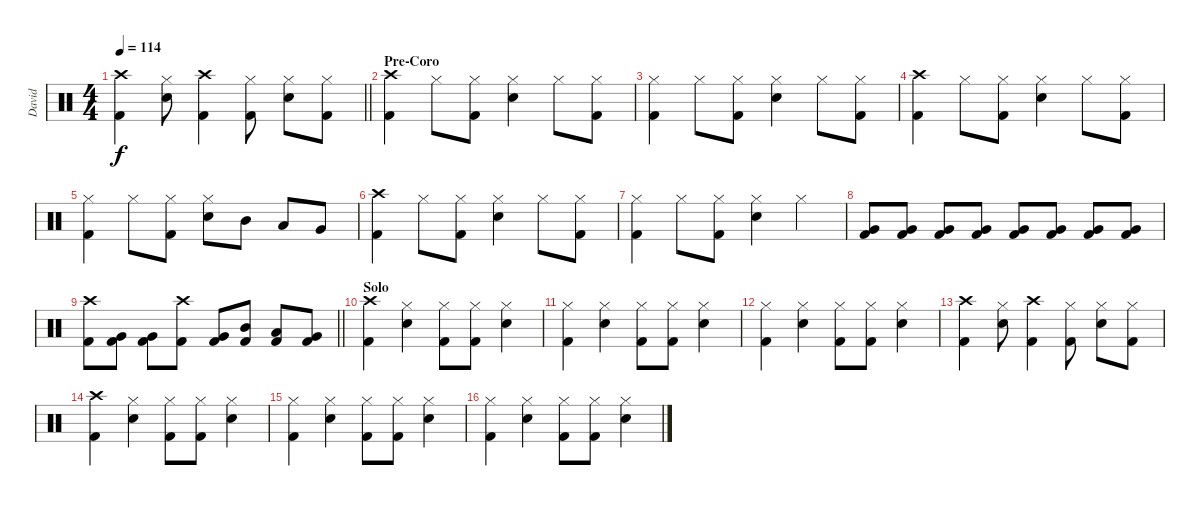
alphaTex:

\track ("David" "David") {instrument percussion}
\staff {score}
\articulation defaults
\ts (4 4)
\tempo 114
\clef neutral
\barLineRight lightlight
\ks c
("Crash high (hit)" "Kick (hit) 2").4{dy f} ("Hi-Hat (closed)" "Snare (hit) 2").8 ("Crash high (hit)" "Kick (hit) 2").4 ("Hi-Hat (closed)" "Kick (hit) 2").8 ("Hi-Hat (closed)" "Snare (hit) 2").8 ("Hi-Hat (closed)" "Kick (hit) 2").8 |
\section ("" "Pre-Coro")
("Crash high (hit)" "Kick (hit) 2").4 "Hi-Hat (closed)".8 ("Hi-Hat (closed)" "Kick (hit) 2").8 ("Hi-Hat (closed)" "Snare (hit) 2").4 "Hi-Hat (closed)".8 ("Hi-Hat (closed)" "Kick (hit) 2").8 |
("Hi-Hat (closed)" "Kick (hit) 2").4 "Hi-Hat (closed)".8 ("Hi-Hat (closed)" "Kick (hit) 2").8 ("Hi-Hat (closed)" "Snare (hit) 2").4 "Hi-Hat (closed)".8 ("Hi-Hat (closed)" "Kick (hit) 2").8 |
("Crash high (hit)" "Kick (hit) 2").4 "Hi-Hat (closed)".8 ("Hi-Hat (closed)" "Kick (hit) 2").8 ("Hi-Hat (closed)" "Snare (hit) 2").4 "Hi-Hat (closed)".8 ("Hi-Hat (closed)" "Kick (hit) 2").8 |
("Hi-Hat (closed)" "Kick (hit) 2").4 "Hi-Hat (closed)".8 ("Hi-Hat (closed)" "Kick (hit) 2").8 ("Hi-Hat (closed)" "Snare (hit) 2").8 "Mid Tom (hit)".8 "Low Tom (hit)".8 "Very Low Tom (hit)".8 |
("Crash high (hit)" "Kick (hit) 2").4 "Hi-Hat (closed)".8 ("Hi-Hat (closed)" "Kick (hit) 2").8 ("Hi-Hat (closed)" "Snare (hit) 2").4 "Hi-Hat (closed)".8 ("Hi-Hat (closed)" "Kick (hit) 2").8 |
("Hi-Hat (closed)" "Kick (hit) 2").4 "Hi-Hat (closed)".8 ("Hi-Hat (closed)" "Kick (hit) 2").8 ("Hi-Hat (closed)" "Snare (hit) 2").4 "Hi-Hat (closed)".4 |
("Very Low Tom (hit)" "Kick (hit) 2").8 ("Very Low Tom (hit)" "Kick (hit) 2").8 ("Very Low Tom (hit)" "Kick (hit) 2").8 ("Very Low Tom (hit)" "Kick (hit) 2").8 ("Very Low Tom (hit)" "Kick (hit) 2").8 ("Very Low Tom (hit)" "Kick (hit) 2").8 ("Very Low Tom (hit)" "Kick (hit) 2").8 ("Very Low Tom (hit)" "Kick (hit) 2").8 |
\barLineRight lightlight
("Crash high (hit)" "Kick (hit) 2").8 ("Very Low Tom (hit)" "Kick (hit) 2").8 ("Very Low Tom (hit)" "Kick (hit) 2").8 ("Crash high (hit)" "Kick (hit) 2").8 ("Very Low Tom (hit)" "Kick (hit) 2").8 ("Mid Tom (hit)" "Kick (hit) 2").8 ("Low Tom (hit)" "Kick (hit) 2").8 ("Very Low Tom (hit)" "Kick (hit) 2").8 |
\section ("" "Solo")
("Crash high (hit)" "Kick (hit) 2").4 ("Hi-Hat (closed)" "Snare (hit) 2").4 ("Hi-Hat (closed)" "Kick (hit) 2").8 ("Hi-Hat (closed)" "Kick (hit) 2").8 ("Hi-Hat (closed)" "Snare (hit) 2").4 |
("Hi-Hat (closed)" "Kick (hit) 2").4 ("Hi-Hat (closed)" "Snare (hit) 2").4 ("Hi-Hat (closed)" "Kick (hit) 2").8 ("Hi-Hat (closed)" "Kick (hit) 2").8 ("Hi-Hat (closed)" "Snare (hit) 2").4 |
("Hi-Hat (closed)" "Kick (hit) 2").4 ("Hi-Hat (closed)" "Snare (hit) 2").4 ("Hi-Hat (closed)" "Kick (hit) 2").8 ("Hi-Hat (closed)" "Kick (hit) 2").8 ("Hi-Hat (closed)" "Snare (hit) 2").4 |
("Crash high (hit)" "Kick (hit) 2").4 ("Hi-Hat (closed)" "Snare (hit) 2").8 ("Crash high (hit)" "Kick (hit) 2").4 ("Hi-Hat (closed)" "Kick (hit) 2").8 ("Hi-Hat (closed)" "Snare (hit) 2").8 ("Hi-Hat (closed)" "Kick (hit) 2").8 |
("Crash high (hit)" "Kick (hit) 2").4 ("Hi-Hat (closed)" "Snare (hit) 2").4 ("Hi-Hat (closed)" "Kick (hit) 2").8 ("Hi-Hat (closed)" "Kick (hit) 2").8 ("Hi-Hat (closed)" "Snare (hit) 2").4 |
("Hi-Hat (closed)" "Kick (hit) 2").4 ("Hi-Hat (closed)" "Snare (hit) 2").4 ("Hi-Hat (closed)" "Kick (hit) 2").8 ("Hi-Hat (closed)" "Kick (hit) 2").8 ("Hi-Hat (closed)" "Snare (hit) 2").4 |
("Hi-Hat (closed)" "Kick (hit) 2").4 ("Hi-Hat (closed)" "Snare (hit) 2").4 ("Hi-Hat (closed)" "Kick (hit) 2").8 ("Hi-Hat (closed)" "Kick (hit) 2").8 ("Hi-Hat (closed)" "Snare (hit) 2").4
